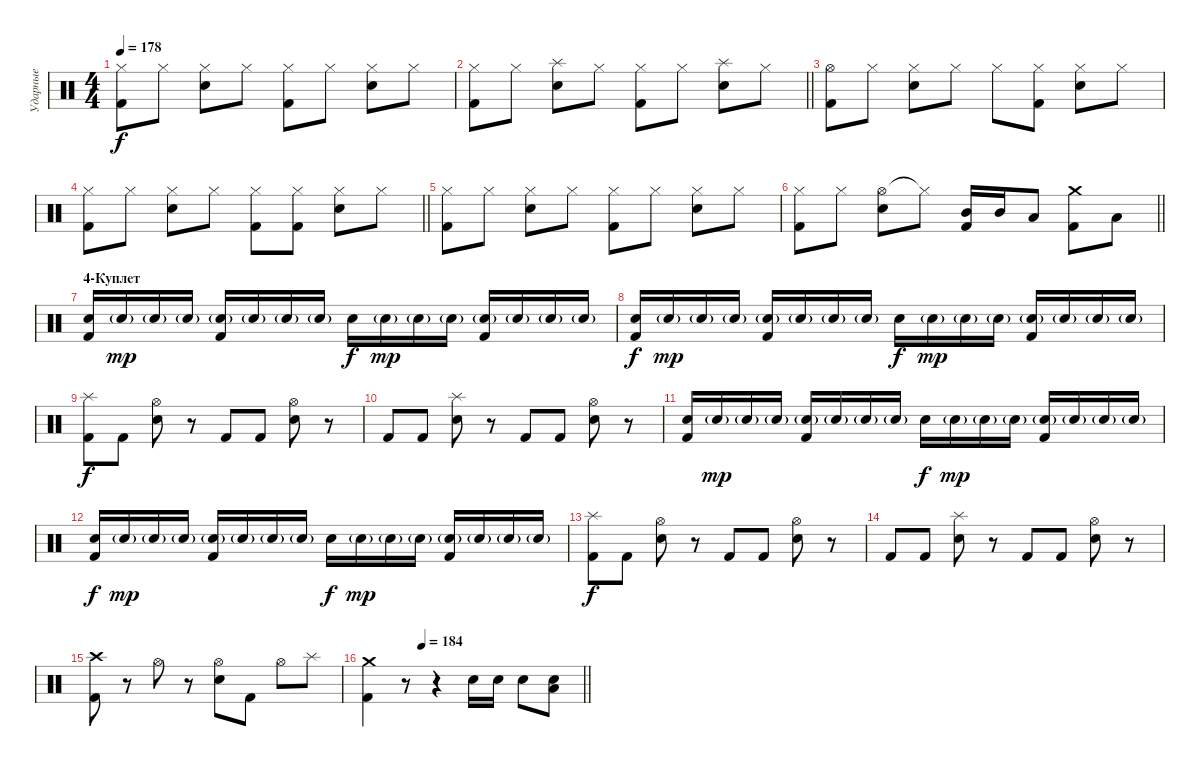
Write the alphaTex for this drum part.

\track ("Ударные" "Ударные") {instrument percussion}
\staff {score}
\articulation defaults
\ts (4 4)
\tempo 178
\clef neutral
\ks c
("Hi-Hat (closed)" "Kick (hit) 2").8{dy f} "Hi-Hat (closed)".8 ("Hi-Hat (closed)" "Snare (hit) 2").8 "Hi-Hat (closed)".8 ("Hi-Hat (closed)" "Kick (hit) 2").8 "Hi-Hat (closed)".8 ("Hi-Hat (closed)" "Snare (hit) 2").8 "Hi-Hat (closed)".8 |
\barLineRight lightlight
("Hi-Hat (closed)" "Kick (hit) 2").8 "Hi-Hat (closed)".8 ("Splash (hit)" "Snare (hit) 2").8 "Hi-Hat (closed)".8 ("Hi-Hat (closed)" "Kick (hit) 2").8 "Hi-Hat (closed)".8 ("Splash (hit)" "Snare (hit) 2").8 "Hi-Hat (closed)".8 |
("Hi-Hat (open)" "Kick (hit) 2").8 "Hi-Hat (closed)".8 ("Hi-Hat (closed)" "Snare (hit) 2").8 "Hi-Hat (closed)".8 "Hi-Hat (closed)".8 ("Hi-Hat (closed)" "Kick (hit) 2").8 ("Hi-Hat (closed)" "Snare (hit) 2").8 "Hi-Hat (closed)".8 |
\barLineRight lightlight
("Hi-Hat (closed)" "Kick (hit) 2").8 "Hi-Hat (closed)".8 ("Hi-Hat (closed)" "Snare (hit) 2").8 "Hi-Hat (closed)".8 ("Hi-Hat (closed)" "Kick (hit) 2").8 ("Hi-Hat (closed)" "Kick (hit) 2").8 ("Hi-Hat (closed)" "Snare (hit) 2").8 "Hi-Hat (closed)".8 |
("Hi-Hat (closed)" "Kick (hit) 2").8 "Hi-Hat (closed)".8 ("Hi-Hat (closed)" "Snare (hit) 2").8 "Hi-Hat (closed)".8 ("Hi-Hat (closed)" "Kick (hit) 2").8 "Hi-Hat (closed)".8 ("Hi-Hat (closed)" "Snare (hit) 2").8 "Hi-Hat (closed)".8 |
\barLineRight lightlight
("Hi-Hat (closed)" "Kick (hit) 2").8 "Hi-Hat (closed)".8 ("Hi-Hat (open)" "Snare (hit) 2").8 "Hi-Hat (closed)"{t}.8 ("Mid Tom (hit)" "Kick (hit) 2").16 "Mid Tom (hit)".16 "Low Floor Tom (hit)".8 ("Crash medium (hit)" "Kick (hit) 2").8 "Low Tom (hit)".8 |
\section ("" "4-Куплет")
("Snare (hit) 2" "Kick (hit) 2").16 "Snare (hit) 2"{g}.16{dy mp} "Snare (hit) 2"{g}.16 "Snare (hit) 2"{g}.16 ("Snare (hit) 2"{g} "Kick (hit) 2").16 "Snare (hit) 2"{g}.16 "Snare (hit) 2"{g}.16 "Snare (hit) 2"{g}.16 "Snare (hit) 2".16{dy f} "Snare (hit) 2"{g}.16{dy mp} "Snare (hit) 2"{g}.16 "Snare (hit) 2"{g}.16 ("Snare (hit) 2"{g} "Kick (hit) 2").16 "Snare (hit) 2"{g}.16 "Snare (hit) 2"{g}.16 "Snare (hit) 2"{g}.16 |
("Snare (hit) 2" "Kick (hit) 2").16{dy f} "Snare (hit) 2"{g}.16{dy mp} "Snare (hit) 2"{g}.16 "Snare (hit) 2"{g}.16 ("Snare (hit) 2"{g} "Kick (hit) 2").16 "Snare (hit) 2"{g}.16 "Snare (hit) 2"{g}.16 "Snare (hit) 2"{g}.16 "Snare (hit) 2".16{dy f} "Snare (hit) 2"{g}.16{dy mp} "Snare (hit) 2"{g}.16 "Snare (hit) 2"{g}.16 ("Snare (hit) 2"{g} "Kick (hit) 2").16 "Snare (hit) 2"{g}.16 "Snare (hit) 2"{g}.16 "Snare (hit) 2"{g}.16 |
("Splash (hit)" "Kick (hit) 2").8{dy f} "Kick (hit) 2".8 ("Hi-Hat (open)" "Snare (hit) 2").8 r.8 "Kick (hit) 2".8 "Kick (hit) 2".8 ("Hi-Hat (open)" "Snare (hit) 2").8 r.8 |
"Kick (hit) 2".8 "Kick (hit) 2".8 ("Splash (hit)" "Snare (hit) 2").8 r.8 "Kick (hit) 2".8 "Kick (hit) 2".8 ("Hi-Hat (open)" "Snare (hit) 2").8 r.8 |
("Snare (hit) 2" "Kick (hit) 2").16 "Snare (hit) 2"{g}.16{dy mp} "Snare (hit) 2"{g}.16 "Snare (hit) 2"{g}.16 ("Snare (hit) 2"{g} "Kick (hit) 2").16 "Snare (hit) 2"{g}.16 "Snare (hit) 2"{g}.16 "Snare (hit) 2"{g}.16 "Snare (hit) 2".16{dy f} "Snare (hit) 2"{g}.16{dy mp} "Snare (hit) 2"{g}.16 "Snare (hit) 2"{g}.16 ("Snare (hit) 2"{g} "Kick (hit) 2").16 "Snare (hit) 2"{g}.16 "Snare (hit) 2"{g}.16 "Snare (hit) 2"{g}.16 |
("Snare (hit) 2" "Kick (hit) 2").16{dy f} "Snare (hit) 2"{g}.16{dy mp} "Snare (hit) 2"{g}.16 "Snare (hit) 2"{g}.16 ("Snare (hit) 2"{g} "Kick (hit) 2").16 "Snare (hit) 2"{g}.16 "Snare (hit) 2"{g}.16 "Snare (hit) 2"{g}.16 "Snare (hit) 2".16{dy f} "Snare (hit) 2"{g}.16{dy mp} "Snare (hit) 2"{g}.16 "Snare (hit) 2"{g}.16 ("Snare (hit) 2"{g} "Kick (hit) 2").16 "Snare (hit) 2"{g}.16 "Snare (hit) 2"{g}.16 "Snare (hit) 2"{g}.16 |
("Splash (hit)" "Kick (hit) 2").8{dy f} "Kick (hit) 2".8 ("Hi-Hat (open)" "Snare (hit) 2").8 r.8 "Kick (hit) 2".8 "Kick (hit) 2".8 ("Hi-Hat (open)" "Snare (hit) 2").8 r.8 |
"Kick (hit) 2".8 "Kick (hit) 2".8 ("Splash (hit)" "Snare (hit) 2").8 r.8 "Kick (hit) 2".8 "Kick (hit) 2".8 ("Hi-Hat (open)" "Snare (hit) 2").8 r.8 |
("Crash high (hit)" "Kick (hit) 2").8 r.8 "Hi-Hat (open)".8 r.8 ("Hi-Hat (open)" "Snare (hit) 2").8 "Kick (hit) 2".8 "Hi-Hat (open)".8 "Splash (hit)".8 |
\tempo (184 0.25)
\barLineRight lightlight
("Crash medium (hit)" "Kick (hit) 2").4 r.8 r.4 "Snare (hit) 2".16 "Snare (hit) 2".16 "Snare (hit) 2".8 ("Low Floor Tom (hit)" "Snare (hit) 2").8
